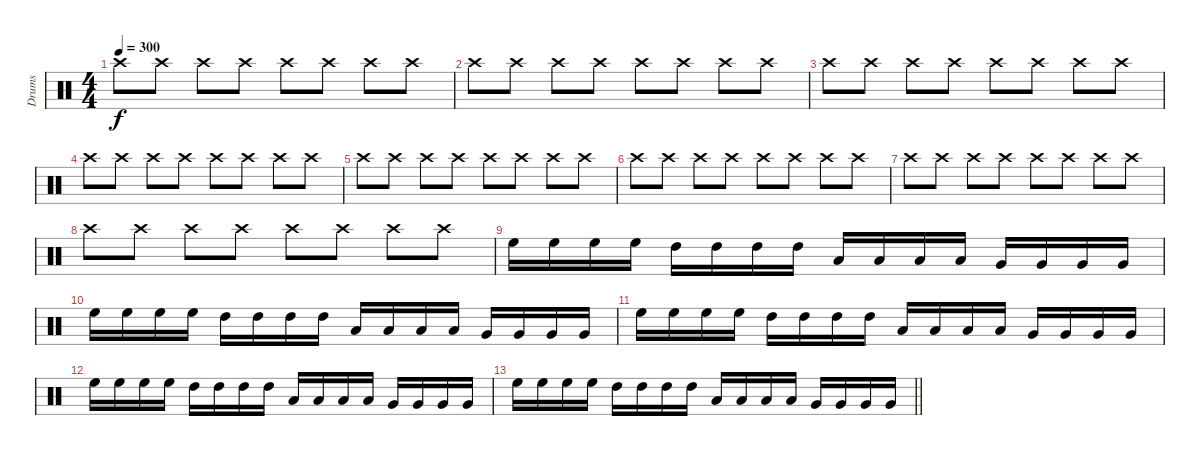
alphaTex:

\track ("Drums" "Drums") {instrument percussion}
\staff {score}
\articulation defaults
\ts (4 4)
\tempo 300
\clef neutral
\ks c "Crash high (hit)".8{dy f} "Crash high (hit)".8 "Crash high (hit)".8 "Crash high (hit)".8 "Crash high (hit)".8 "Crash high (hit)".8 "Crash high (hit)".8 "Crash high (hit)".8
|
"Crash high (hit)".8 "Crash high (hit)".8 "Crash high (hit)".8 "Crash high (hit)".8 "Crash high (hit)".8 "Crash high (hit)".8 "Crash high (hit)".8 "Crash high (hit)".8 |
"Crash high (hit)".8 "Crash high (hit)".8 "Crash high (hit)".8 "Crash high (hit)".8 "Crash high (hit)".8 "Crash high (hit)".8 "Crash high (hit)".8 "Crash high (hit)".8 |
"Crash high (hit)".8 "Crash high (hit)".8 "Crash high (hit)".8 "Crash high (hit)".8 "Crash high (hit)".8 "Crash high (hit)".8 "Crash high (hit)".8 "Crash high (hit)".8 |
"Crash high (hit)".8 "Crash high (hit)".8 "Crash high (hit)".8 "Crash high (hit)".8 "Crash high (hit)".8 "Crash high (hit)".8 "Crash high (hit)".8 "Crash high (hit)".8 |
"Crash high (hit)".8 "Crash high (hit)".8 "Crash high (hit)".8 "Crash high (hit)".8 "Crash high (hit)".8 "Crash high (hit)".8 "Crash high (hit)".8 "Crash high (hit)".8 |
"Crash high (hit)".8 "Crash high (hit)".8 "Crash high (hit)".8 "Crash high (hit)".8 "Crash high (hit)".8 "Crash high (hit)".8 "Crash high (hit)".8 "Crash high (hit)".8 |
"Crash high (hit)".8 "Crash high (hit)".8 "Crash high (hit)".8 "Crash high (hit)".8 "Crash high (hit)".8 "Crash high (hit)".8 "Crash high (hit)".8 "Crash high (hit)".8 |
"High Floor Tom (hit)".16 "High Floor Tom (hit)".16 "High Floor Tom (hit)".16 "High Floor Tom (hit)".16 "High Tom (hit)".16 "High Tom (hit)".16 "High Tom (hit)".16 "High Tom (hit)".16 "Low Tom (hit)".16 "Low Tom (hit)".16 "Low Tom (hit)".16 "Low Tom (hit)".16 "Very Low Tom (hit)".16 "Very Low Tom (hit)".16 "Very Low Tom (hit)".16 "Very Low Tom (hit)".16 |
"High Floor Tom (hit)".16 "High Floor Tom (hit)".16 "High Floor Tom (hit)".16 "High Floor Tom (hit)".16 "High Tom (hit)".16 "High Tom (hit)".16 "High Tom (hit)".16 "High Tom (hit)".16 "Low Tom (hit)".16 "Low Tom (hit)".16 "Low Tom (hit)".16 "Low Tom (hit)".16 "Very Low Tom (hit)".16 "Very Low Tom (hit)".16 "Very Low Tom (hit)".16 "Very Low Tom (hit)".16 |
"High Floor Tom (hit)".16 "High Floor Tom (hit)".16 "High Floor Tom (hit)".16 "High Floor Tom (hit)".16 "High Tom (hit)".16 "High Tom (hit)".16 "High Tom (hit)".16 "High Tom (hit)".16 "Low Tom (hit)".16 "Low Tom (hit)".16 "Low Tom (hit)".16 "Low Tom (hit)".16 "Very Low Tom (hit)".16 "Very Low Tom (hit)".16 "Very Low Tom (hit)".16 "Very Low Tom (hit)".16 |
"High Floor Tom (hit)".16 "High Floor Tom (hit)".16 "High Floor Tom (hit)".16 "High Floor Tom (hit)".16 "High Tom (hit)".16 "High Tom (hit)".16 "High Tom (hit)".16 "High Tom (hit)".16 "Low Tom (hit)".16 "Low Tom (hit)".16 "Low Tom (hit)".16 "Low Tom (hit)".16 "Very Low Tom (hit)".16 "Very Low Tom (hit)".16 "Very Low Tom (hit)".16 "Very Low Tom (hit)".16 |
\barLineRight lightlight "High Floor Tom (hit)".16 "High Floor Tom (hit)".16 "High Floor Tom (hit)".16 "High Floor Tom (hit)".16 "High Tom (hit)".16 "High Tom (hit)".16 "High Tom (hit)".16 "High Tom (hit)".16 "Low Tom (hit)".16 "Low Tom (hit)".16 "Low Tom (hit)".16 "Low Tom (hit)".16 "Very Low Tom (hit)".16 "Very Low Tom (hit)".16 "Very Low Tom (hit)".16 "Very Low Tom (hit)".16
